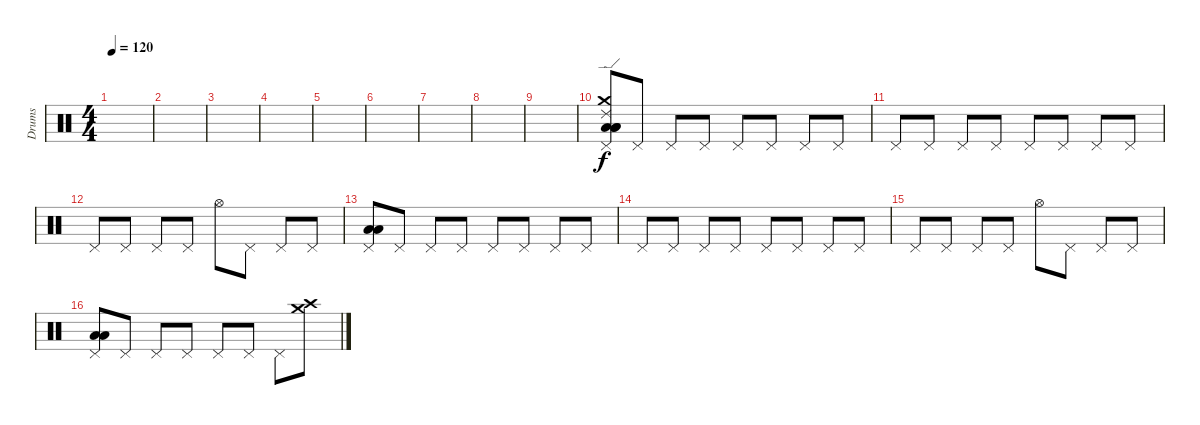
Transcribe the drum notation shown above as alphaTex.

\track ("Drums" "Drums") {instrument percussion}
\staff {score}
\articulation defaults
\ts (4 4)
\tempo 120
\clef neutral
\ks c
|
|
|
|
|
|
|
|
|
("Ride (edge) 2" "Crash medium (hit)" "Pedal Hi-Hat (hit)" "Low Floor Tom (hit)" "Low Tom (hit)" "Low Tom (hit)").8 "Pedal Hi-Hat (hit)".8 "Pedal Hi-Hat (hit)".8 "Pedal Hi-Hat (hit)".8 "Pedal Hi-Hat (hit)".8 "Pedal Hi-Hat (hit)".8 "Pedal Hi-Hat (hit)".8 "Pedal Hi-Hat (hit)".8 |
"Pedal Hi-Hat (hit)".8 "Pedal Hi-Hat (hit)".8 "Pedal Hi-Hat (hit)".8 "Pedal Hi-Hat (hit)".8 "Pedal Hi-Hat (hit)".8 "Pedal Hi-Hat (hit)".8 "Pedal Hi-Hat (hit)".8 "Pedal Hi-Hat (hit)".8 |
"Pedal Hi-Hat (hit)".8 "Pedal Hi-Hat (hit)".8 "Pedal Hi-Hat (hit)".8 "Pedal Hi-Hat (hit)".8 "Hi-Hat (open)".8 "Pedal Hi-Hat (hit)".8 "Pedal Hi-Hat (hit)".8 "Pedal Hi-Hat (hit)".8 |
("Pedal Hi-Hat (hit)" "Low Floor Tom (hit)" "Low Floor Tom (hit)").8 "Pedal Hi-Hat (hit)".8 "Pedal Hi-Hat (hit)".8 "Pedal Hi-Hat (hit)".8 "Pedal Hi-Hat (hit)".8 "Pedal Hi-Hat (hit)".8 "Pedal Hi-Hat (hit)".8 "Pedal Hi-Hat (hit)".8 |
"Pedal Hi-Hat (hit)".8 "Pedal Hi-Hat (hit)".8 "Pedal Hi-Hat (hit)".8 "Pedal Hi-Hat (hit)".8 "Pedal Hi-Hat (hit)".8 "Pedal Hi-Hat (hit)".8 "Pedal Hi-Hat (hit)".8 "Pedal Hi-Hat (hit)".8 |
"Pedal Hi-Hat (hit)".8 "Pedal Hi-Hat (hit)".8 "Pedal Hi-Hat (hit)".8 "Pedal Hi-Hat (hit)".8 "Hi-Hat (open)".8 "Pedal Hi-Hat (hit)".8 "Pedal Hi-Hat (hit)".8 "Pedal Hi-Hat (hit)".8 |
("Pedal Hi-Hat (hit)" "Low Floor Tom (hit)" "Low Floor Tom (hit)").8 "Pedal Hi-Hat (hit)".8 "Pedal Hi-Hat (hit)".8 "Pedal Hi-Hat (hit)".8 "Pedal Hi-Hat (hit)".8 "Pedal Hi-Hat (hit)".8 "Pedal Hi-Hat (hit)".8 ("Crash medium (hit)" "Crash high (hit)").8
